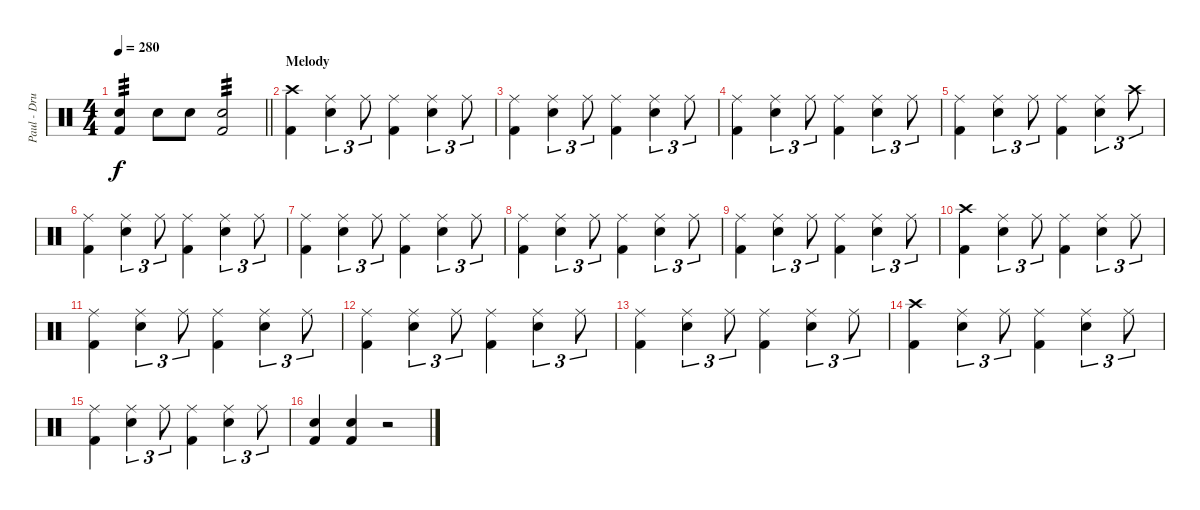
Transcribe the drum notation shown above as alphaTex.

\track ("Paul - Drums" "Paul - Dru") {instrument percussion}
\staff {score}
\articulation defaults
\ts (4 4)
\tempo 280
\clef neutral
\barLineRight lightlight
\ks c
("Electric Snare (hit)" "Kick (hit) 2").4{tp 3 dy f} "Electric Snare (hit)".8 "Electric Snare (hit)".8 ("Electric Snare (hit)" "Kick (hit) 2").2{tp 3} |
\section ("" "Melody")
("Crash high (hit)" "Kick (hit) 2").4 ("Ride (middle)" "Electric Snare (hit)").4{tu (3 2)} "Ride (middle)".8{tu (3 2)} ("Ride (middle)" "Kick (hit) 2").4 ("Ride (middle)" "Electric Snare (hit)").4{tu (3 2)} "Ride (middle)".8{tu (3 2)} |
("Ride (middle)" "Kick (hit) 2").4 ("Ride (middle)" "Electric Snare (hit)").4{tu (3 2)} "Ride (middle)".8{tu (3 2)} ("Ride (middle)" "Kick (hit) 2").4 ("Ride (middle)" "Electric Snare (hit)").4{tu (3 2)} "Ride (middle)".8{tu (3 2)} |
("Ride (middle)" "Kick (hit) 2").4 ("Ride (middle)" "Electric Snare (hit)").4{tu (3 2)} "Ride (middle)".8{tu (3 2)} ("Ride (middle)" "Kick (hit) 2").4 ("Ride (middle)" "Electric Snare (hit)").4{tu (3 2)} "Ride (middle)".8{tu (3 2)} |
("Ride (middle)" "Kick (hit) 2").4 ("Ride (middle)" "Electric Snare (hit)").4{tu (3 2)} "Ride (middle)".8{tu (3 2)} ("Ride (middle)" "Kick (hit) 2").4 ("Ride (middle)" "Electric Snare (hit)").4{tu (3 2)} "Crash high (hit)".8{tu (3 2)} |
("Ride (middle)" "Kick (hit) 2").4 ("Ride (middle)" "Electric Snare (hit)").4{tu (3 2)} "Ride (middle)".8{tu (3 2)} ("Ride (middle)" "Kick (hit) 2").4 ("Ride (middle)" "Electric Snare (hit)").4{tu (3 2)} "Ride (middle)".8{tu (3 2)} |
("Ride (middle)" "Kick (hit) 2").4 ("Ride (middle)" "Electric Snare (hit)").4{tu (3 2)} "Ride (middle)".8{tu (3 2)} ("Ride (middle)" "Kick (hit) 2").4 ("Ride (middle)" "Electric Snare (hit)").4{tu (3 2)} "Ride (middle)".8{tu (3 2)} |
("Ride (middle)" "Kick (hit) 2").4 ("Ride (middle)" "Electric Snare (hit)").4{tu (3 2)} "Ride (middle)".8{tu (3 2)} ("Ride (middle)" "Kick (hit) 2").4 ("Ride (middle)" "Electric Snare (hit)").4{tu (3 2)} "Ride (middle)".8{tu (3 2)} |
("Ride (middle)" "Kick (hit) 2").4 ("Ride (middle)" "Electric Snare (hit)").4{tu (3 2)} "Ride (middle)".8{tu (3 2)} ("Ride (middle)" "Kick (hit) 2").4 ("Ride (middle)" "Electric Snare (hit)").4{tu (3 2)} "Ride (middle)".8{tu (3 2)} |
("Crash high (hit)" "Kick (hit) 2").4 ("Ride (middle)" "Electric Snare (hit)").4{tu (3 2)} "Ride (middle)".8{tu (3 2)} ("Ride (middle)" "Kick (hit) 2").4 ("Ride (middle)" "Electric Snare (hit)").4{tu (3 2)} "Ride (middle)".8{tu (3 2)} |
("Ride (middle)" "Kick (hit) 2").4 ("Ride (middle)" "Electric Snare (hit)").4{tu (3 2)} "Ride (middle)".8{tu (3 2)} ("Ride (middle)" "Kick (hit) 2").4 ("Ride (middle)" "Electric Snare (hit)").4{tu (3 2)} "Ride (middle)".8{tu (3 2)} |
("Ride (middle)" "Kick (hit) 2").4 ("Ride (middle)" "Electric Snare (hit)").4{tu (3 2)} "Ride (middle)".8{tu (3 2)} ("Ride (middle)" "Kick (hit) 2").4 ("Ride (middle)" "Electric Snare (hit)").4{tu (3 2)} "Ride (middle)".8{tu (3 2)} |
("Ride (middle)" "Kick (hit) 2").4 ("Ride (middle)" "Electric Snare (hit)").4{tu (3 2)} "Ride (middle)".8{tu (3 2)} ("Ride (middle)" "Kick (hit) 2").4 ("Ride (middle)" "Electric Snare (hit)").4{tu (3 2)} "Ride (middle)".8{tu (3 2)} |
("Crash high (hit)" "Kick (hit) 2").4 ("Ride (middle)" "Electric Snare (hit)").4{tu (3 2)} "Ride (middle)".8{tu (3 2)} ("Ride (middle)" "Kick (hit) 2").4 ("Ride (middle)" "Electric Snare (hit)").4{tu (3 2)} "Ride (middle)".8{tu (3 2)} |
("Ride (middle)" "Kick (hit) 2").4 ("Ride (middle)" "Electric Snare (hit)").4{tu (3 2)} "Ride (middle)".8{tu (3 2)} ("Ride (middle)" "Kick (hit) 2").4 ("Ride (middle)" "Electric Snare (hit)").4{tu (3 2)} "Ride (middle)".8{tu (3 2)} |
("Electric Snare (hit)" "Kick (hit) 2").4 ("Electric Snare (hit)" "Kick (hit) 2").4 r.2
